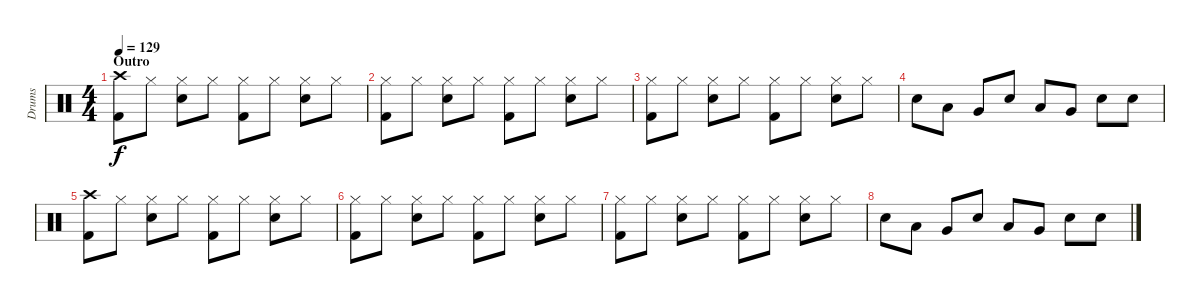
\track ("Drums" "Drums") {instrument percussion}
\staff {score}
\articulation defaults
\ts (4 4)
\section ("" "Outro")
\tempo 129
\clef neutral
\ks c
("Crash high (hit)" "Kick (hit) 2").8{dy f} "Hi-Hat (closed)".8 ("Hi-Hat (closed)" "Snare (hit) 2").8 "Hi-Hat (closed)".8 ("Hi-Hat (closed)" "Kick (hit) 2").8 "Hi-Hat (closed)".8 ("Hi-Hat (closed)" "Snare (hit) 2").8 "Hi-Hat (closed)".8 |
("Hi-Hat (closed)" "Kick (hit) 2").8 "Hi-Hat (closed)".8 ("Hi-Hat (closed)" "Snare (hit) 2").8 "Hi-Hat (closed)".8 ("Hi-Hat (closed)" "Kick (hit) 2").8 "Hi-Hat (closed)".8 ("Hi-Hat (closed)" "Snare (hit) 2").8 "Hi-Hat (closed)".8 |
("Hi-Hat (closed)" "Kick (hit) 2").8 "Hi-Hat (closed)".8 ("Hi-Hat (closed)" "Snare (hit) 2").8 "Hi-Hat (closed)".8 ("Hi-Hat (closed)" "Kick (hit) 2").8 "Hi-Hat (closed)".8 ("Hi-Hat (closed)" "Snare (hit) 2").8 "Hi-Hat (closed)".8 |
"Snare (hit) 2".8 "Low Tom (hit)".8 "Very Low Tom (hit)".8 "Snare (hit) 2".8 "Low Tom (hit)".8 "Very Low Tom (hit)".8 "Snare (hit) 2".8 "Snare (hit) 2".8 |
("Crash high (hit)" "Kick (hit) 2").8 "Hi-Hat (closed)".8 ("Hi-Hat (closed)" "Snare (hit) 2").8 "Hi-Hat (closed)".8 ("Hi-Hat (closed)" "Kick (hit) 2").8 "Hi-Hat (closed)".8 ("Hi-Hat (closed)" "Snare (hit) 2").8 "Hi-Hat (closed)".8 |
("Hi-Hat (closed)" "Kick (hit) 2").8 "Hi-Hat (closed)".8 ("Hi-Hat (closed)" "Snare (hit) 2").8 "Hi-Hat (closed)".8 ("Hi-Hat (closed)" "Kick (hit) 2").8 "Hi-Hat (closed)".8 ("Hi-Hat (closed)" "Snare (hit) 2").8 "Hi-Hat (closed)".8 |
("Hi-Hat (closed)" "Kick (hit) 2").8 "Hi-Hat (closed)".8 ("Hi-Hat (closed)" "Snare (hit) 2").8 "Hi-Hat (closed)".8 ("Hi-Hat (closed)" "Kick (hit) 2").8 "Hi-Hat (closed)".8 ("Hi-Hat (closed)" "Snare (hit) 2").8 "Hi-Hat (closed)".8 |
"Snare (hit) 2".8 "Low Tom (hit)".8 "Very Low Tom (hit)".8 "Snare (hit) 2".8 "Low Tom (hit)".8 "Very Low Tom (hit)".8 "Snare (hit) 2".8 "Snare (hit) 2".8
